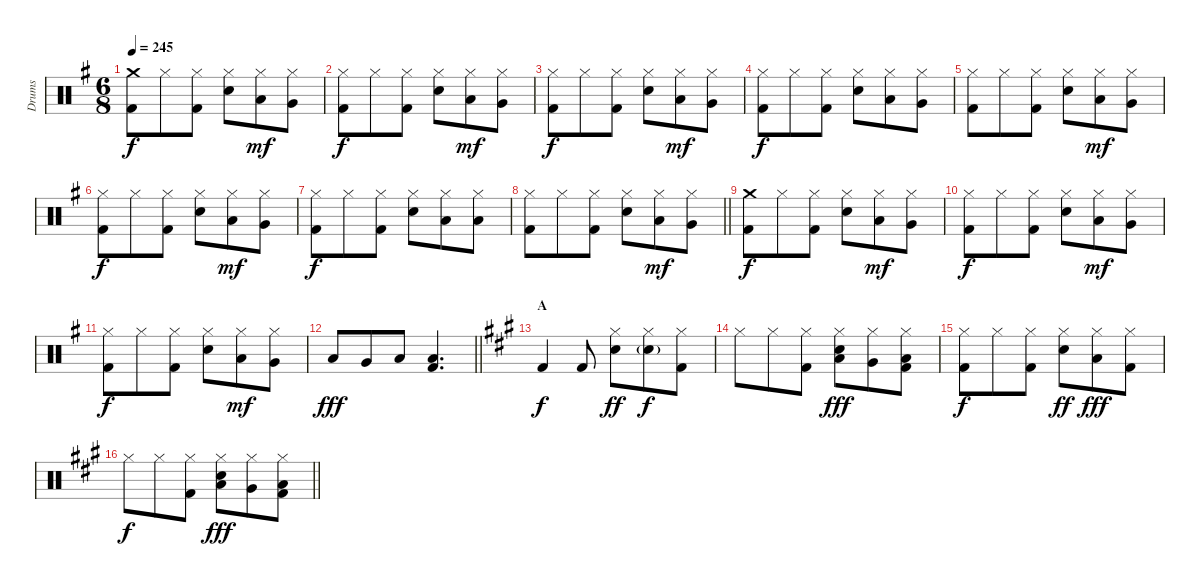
\track ("Drums" "Drums") {instrument percussion}
\staff {score}
\articulation defaults
\ts (6 8)
\section ("" "")
\tempo 245
\clef neutral
\ks eminor
("Crash medium (hit)" "Kick (hit) 2").8{dy f} "Hi-Hat (closed)".8 ("Hi-Hat (closed)" "Kick (hit) 2").8 ("Hi-Hat (closed)" "Electric Snare (hit)").8 ("Hi-Hat (closed)" "Low Tom (hit)").8{dy mf} ("Hi-Hat (closed)" "Very Low Tom (hit)").8 |
("Hi-Hat (closed)" "Kick (hit) 2").8{dy f} "Hi-Hat (closed)".8 ("Hi-Hat (closed)" "Kick (hit) 2").8 ("Hi-Hat (closed)" "Electric Snare (hit)").8 ("Hi-Hat (closed)" "Low Tom (hit)").8{dy mf} ("Hi-Hat (closed)" "Very Low Tom (hit)").8 |
("Hi-Hat (closed)" "Kick (hit) 2").8{dy f} "Hi-Hat (closed)".8 ("Hi-Hat (closed)" "Kick (hit) 2").8 ("Hi-Hat (closed)" "Electric Snare (hit)").8 ("Hi-Hat (closed)" "Low Tom (hit)").8{dy mf} ("Hi-Hat (closed)" "Very Low Tom (hit)").8 |
("Hi-Hat (closed)" "Kick (hit) 2").8{dy f} "Hi-Hat (closed)".8 ("Hi-Hat (closed)" "Kick (hit) 2").8 ("Hi-Hat (closed)" "Electric Snare (hit)").8 ("Hi-Hat (closed)" "Low Tom (hit)").8 ("Hi-Hat (closed)" "Very Low Tom (hit)").8 |
("Hi-Hat (closed)" "Kick (hit) 2").8 "Hi-Hat (closed)".8 ("Hi-Hat (closed)" "Kick (hit) 2").8 ("Hi-Hat (closed)" "Electric Snare (hit)").8 ("Hi-Hat (closed)" "Low Tom (hit)").8{dy mf} ("Hi-Hat (closed)" "Very Low Tom (hit)").8 |
("Hi-Hat (closed)" "Kick (hit) 2").8{dy f} "Hi-Hat (closed)".8 ("Hi-Hat (closed)" "Kick (hit) 2").8 ("Hi-Hat (closed)" "Electric Snare (hit)").8 ("Hi-Hat (closed)" "Low Tom (hit)").8{dy mf} ("Hi-Hat (closed)" "Very Low Tom (hit)").8 |
("Hi-Hat (closed)" "Kick (hit) 2").8{dy f} "Hi-Hat (closed)".8 ("Hi-Hat (closed)" "Kick (hit) 2").8 ("Hi-Hat (closed)" "Electric Snare (hit)").8 ("Hi-Hat (closed)" "Low Tom (hit)").8 ("Hi-Hat (closed)" "Low Floor Tom (hit)").8 |
\barLineRight lightlight
("Hi-Hat (closed)" "Kick (hit) 2").8 "Hi-Hat (closed)".8 ("Hi-Hat (closed)" "Kick (hit) 2").8 ("Hi-Hat (closed)" "Electric Snare (hit)").8 ("Hi-Hat (closed)" "Low Tom (hit)").8{dy mf} ("Hi-Hat (closed)" "Very Low Tom (hit)").8 |
("Crash medium (hit)" "Kick (hit) 2").8{dy f} "Hi-Hat (closed)".8 ("Hi-Hat (closed)" "Kick (hit) 2").8 ("Hi-Hat (closed)" "Electric Snare (hit)").8 ("Hi-Hat (closed)" "Low Tom (hit)").8{dy mf} ("Hi-Hat (closed)" "Very Low Tom (hit)").8 |
("Hi-Hat (closed)" "Kick (hit) 2").8{dy f} "Hi-Hat (closed)".8 ("Hi-Hat (closed)" "Kick (hit) 2").8 ("Hi-Hat (closed)" "Electric Snare (hit)").8 ("Hi-Hat (closed)" "Low Tom (hit)").8{dy mf} ("Hi-Hat (closed)" "Very Low Tom (hit)").8 |
("Hi-Hat (closed)" "Kick (hit) 2").8{dy f} "Hi-Hat (closed)".8 ("Hi-Hat (closed)" "Kick (hit) 2").8 ("Hi-Hat (closed)" "Electric Snare (hit)").8 ("Hi-Hat (closed)" "Low Tom (hit)").8{dy mf} ("Hi-Hat (closed)" "Very Low Tom (hit)").8 |
\barLineRight lightlight "Low Tom (hit)".8{dy fff} "Very Low Tom (hit)".8 "Low Floor Tom (hit)".8
("Low Floor Tom (hit)" "Kick (hit) 2").4{d} |
\section ("" "A")
\ks a "Kick (hit) 2".4{dy f} "Kick (hit) 2".8
("Hi-Hat (closed)" "Electric Snare (hit)").8{dy ff} ("Hi-Hat (closed)" "Electric Snare (hit)"{g}).8{dy f} ("Hi-Hat (closed)" "Kick (hit) 2").8 |
"Hi-Hat (closed)".8 "Hi-Hat (closed)".8 ("Hi-Hat (closed)" "Kick (hit) 2").8 ("Hi-Hat (closed)" "Low Tom (hit)" "Electric Snare (hit)").8{dy fff} ("Hi-Hat (closed)" "Very Low Tom (hit)").8 ("Hi-Hat (closed)" "Low Floor Tom (hit)" "Kick (hit) 2").8 |
("Hi-Hat (closed)" "Kick (hit) 2").8{dy f} "Hi-Hat (closed)".8 ("Hi-Hat (closed)" "Kick (hit) 2").8 ("Hi-Hat (closed)" "Electric Snare (hit)").8{dy ff} ("Hi-Hat (closed)" "Low Tom (hit)").8{dy fff} ("Hi-Hat (closed)" "Kick (hit) 2").8 |
\barLineRight lightlight "Hi-Hat (closed)".8{dy f} "Hi-Hat (closed)".8
("Hi-Hat (closed)" "Kick (hit) 2").8 ("Hi-Hat (closed)" "Low Tom (hit)" "Electric Snare (hit)").8{dy fff} ("Hi-Hat (closed)" "Very Low Tom (hit)").8 ("Hi-Hat (closed)" "Low Floor Tom (hit)" "Kick (hit) 2").8
